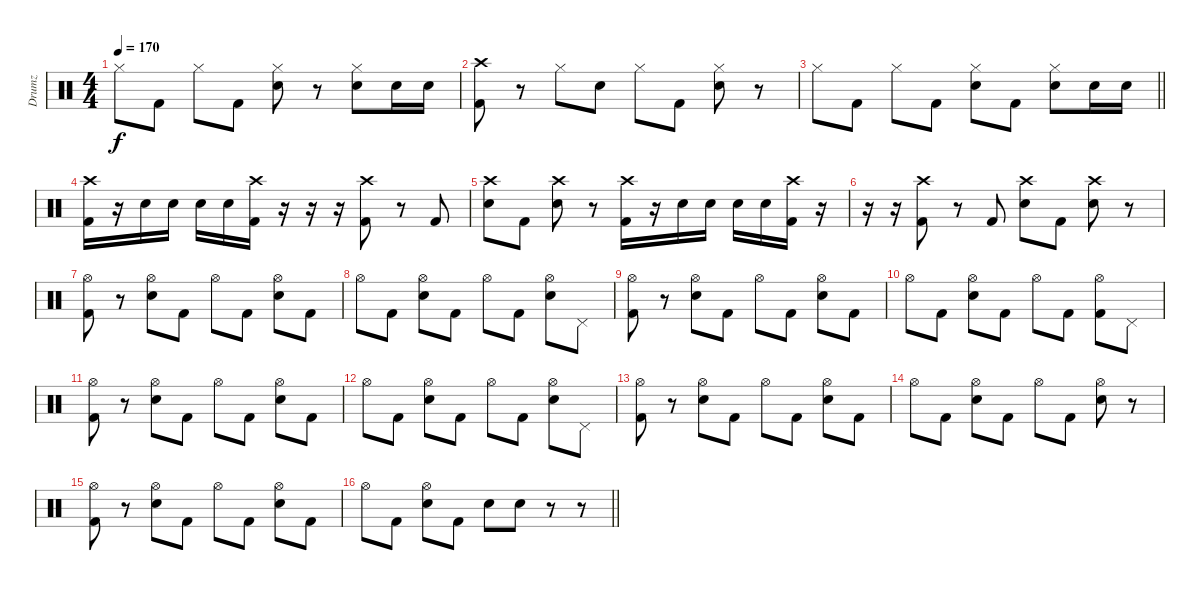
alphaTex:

\track ("Drumz" "Drumz") {instrument percussion}
\staff {score}
\articulation defaults
\ts (4 4)
\tempo 170
\clef neutral
\ks c "Hi-Hat (closed)".8{dy f} "Kick (hit) 2".8 "Hi-Hat (closed)".8 "Kick (hit) 2".8
("Hi-Hat (closed)" "Electric Snare (hit)").8 r.8 ("Hi-Hat (closed)" "Electric Snare (hit)").8 "Electric Snare (hit)".16 "Electric Snare (hit)".16 |
("Crash high (hit)" "Kick (hit) 2").8 r.8 "Hi-Hat (closed)".8 "Electric Snare (hit)".8 "Hi-Hat (closed)".8 "Kick (hit) 2".8 ("Hi-Hat (closed)" "Electric Snare (hit)").8 r.8 |
\barLineRight lightlight "Hi-Hat (closed)".8 "Kick (hit) 2".8 "Hi-Hat (closed)".8 "Kick (hit) 2".8
("Hi-Hat (closed)" "Electric Snare (hit)").8 "Kick (hit) 2".8 ("Hi-Hat (closed)" "Electric Snare (hit)").8 "Electric Snare (hit)".16 "Electric Snare (hit)".16 |
("Crash high (hit)" "Kick (hit) 2").16 r.16 "Electric Snare (hit)".16 "Electric Snare (hit)".16 "Electric Snare (hit)".16 "Electric Snare (hit)".16 ("Crash high (hit)" "Kick (hit) 2").16 r.16 r.16 r.16 ("Crash high (hit)" "Kick (hit) 2").8 r.8 "Kick (hit) 2".8 |
("Crash high (hit)" "Electric Snare (hit)").8 "Kick (hit) 2".8 ("Crash high (hit)" "Electric Snare (hit)").8 r.8 ("Crash high (hit)" "Kick (hit) 2").16 r.16 "Electric Snare (hit)".16 "Electric Snare (hit)".16 "Electric Snare (hit)".16 "Electric Snare (hit)".16 ("Crash high (hit)" "Kick (hit) 2").16 r.16 |
r.16 r.16 ("Crash high (hit)" "Kick (hit) 2").8 r.8 "Kick (hit) 2".8 ("Crash high (hit)" "Electric Snare (hit)").8 "Kick (hit) 2".8 ("Crash high (hit)" "Electric Snare (hit)").8 r.8 |
("Hi-Hat (open)" "Kick (hit) 2").8 r.8 ("Hi-Hat (open)" "Electric Snare (hit)").8 "Kick (hit) 2".8 "Hi-Hat (open)".8 "Kick (hit) 2".8 ("Hi-Hat (open)" "Electric Snare (hit)").8 "Kick (hit) 2".8 |
"Hi-Hat (open)".8 "Kick (hit) 2".8 ("Hi-Hat (open)" "Electric Snare (hit)").8 "Kick (hit) 2".8 "Hi-Hat (open)".8 "Kick (hit) 2".8 ("Hi-Hat (open)" "Electric Snare (hit)").8 "Pedal Hi-Hat (hit)".8 |
("Hi-Hat (open)" "Kick (hit) 2").8 r.8 ("Hi-Hat (open)" "Electric Snare (hit)").8 "Kick (hit) 2".8 "Hi-Hat (open)".8 "Kick (hit) 2".8 ("Hi-Hat (open)" "Electric Snare (hit)").8 "Kick (hit) 2".8 |
"Hi-Hat (open)".8 "Kick (hit) 2".8 ("Hi-Hat (open)" "Electric Snare (hit)").8 "Kick (hit) 2".8 "Hi-Hat (open)".8 "Kick (hit) 2".8 ("Hi-Hat (open)" "Kick (hit) 2").8 "Pedal Hi-Hat (hit)".8 |
("Hi-Hat (open)" "Kick (hit) 2").8 r.8 ("Hi-Hat (open)" "Electric Snare (hit)").8 "Kick (hit) 2".8 "Hi-Hat (open)".8 "Kick (hit) 2".8 ("Hi-Hat (open)" "Electric Snare (hit)").8 "Kick (hit) 2".8 |
"Hi-Hat (open)".8 "Kick (hit) 2".8 ("Hi-Hat (open)" "Electric Snare (hit)").8 "Kick (hit) 2".8 "Hi-Hat (open)".8 "Kick (hit) 2".8 ("Hi-Hat (open)" "Electric Snare (hit)").8 "Pedal Hi-Hat (hit)".8 |
("Hi-Hat (open)" "Kick (hit) 2").8 r.8 ("Hi-Hat (open)" "Electric Snare (hit)").8 "Kick (hit) 2".8 "Hi-Hat (open)".8 "Kick (hit) 2".8 ("Hi-Hat (open)" "Electric Snare (hit)").8 "Kick (hit) 2".8 |
"Hi-Hat (open)".8 "Kick (hit) 2".8 ("Hi-Hat (open)" "Electric Snare (hit)").8 "Kick (hit) 2".8 "Hi-Hat (open)".8 "Kick (hit) 2".8 ("Hi-Hat (open)" "Electric Snare (hit)").8 r.8 |
("Hi-Hat (open)" "Kick (hit) 2").8 r.8 ("Hi-Hat (open)" "Electric Snare (hit)").8 "Kick (hit) 2".8 "Hi-Hat (open)".8 "Kick (hit) 2".8 ("Hi-Hat (open)" "Electric Snare (hit)").8 "Kick (hit) 2".8 |
\barLineRight lightlight "Hi-Hat (open)".8 "Kick (hit) 2".8
("Hi-Hat (open)" "Electric Snare (hit)").8 "Kick (hit) 2".8 "Electric Snare (hit)".8 "Electric Snare (hit)".8 r.8 r.8
